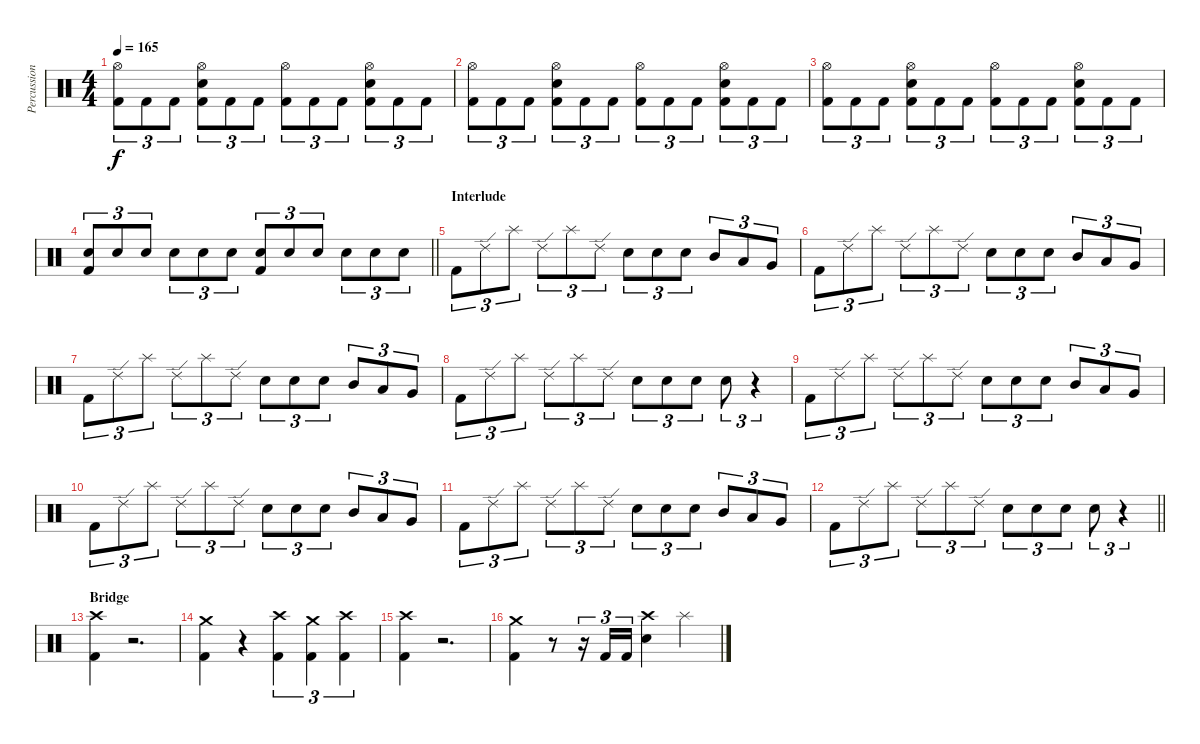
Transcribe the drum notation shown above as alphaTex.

\track ("Percussion" "Percussion") {instrument percussion}
\staff {score}
\articulation defaults
\ts (4 4)
\tempo 165
\clef neutral
\ks c
("Hi-Hat (open)" "Kick (hit) 2").8{tu (3 2) dy f} "Kick (hit) 2".8{tu (3 2)} "Kick (hit) 2".8{tu (3 2)} ("Hi-Hat (open)" "Snare (hit) 2" "Kick (hit) 2").8{tu (3 2)} "Kick (hit) 2".8{tu (3 2)} "Kick (hit) 2".8{tu (3 2)} ("Hi-Hat (open)" "Kick (hit) 2").8{tu (3 2)} "Kick (hit) 2".8{tu (3 2)} "Kick (hit) 2".8{tu (3 2)} ("Hi-Hat (open)" "Snare (hit) 2" "Kick (hit) 2").8{tu (3 2)} "Kick (hit) 2".8{tu (3 2)} "Kick (hit) 2".8{tu (3 2)} |
("Hi-Hat (open)" "Kick (hit) 2").8{tu (3 2)} "Kick (hit) 2".8{tu (3 2)} "Kick (hit) 2".8{tu (3 2)} ("Hi-Hat (open)" "Snare (hit) 2" "Kick (hit) 2").8{tu (3 2)} "Kick (hit) 2".8{tu (3 2)} "Kick (hit) 2".8{tu (3 2)} ("Hi-Hat (open)" "Kick (hit) 2").8{tu (3 2)} "Kick (hit) 2".8{tu (3 2)} "Kick (hit) 2".8{tu (3 2)} ("Hi-Hat (open)" "Snare (hit) 2" "Kick (hit) 2").8{tu (3 2)} "Kick (hit) 2".8{tu (3 2)} "Kick (hit) 2".8{tu (3 2)} |
("Hi-Hat (open)" "Kick (hit) 2").8{tu (3 2)} "Kick (hit) 2".8{tu (3 2)} "Kick (hit) 2".8{tu (3 2)} ("Hi-Hat (open)" "Snare (hit) 2" "Kick (hit) 2").8{tu (3 2)} "Kick (hit) 2".8{tu (3 2)} "Kick (hit) 2".8{tu (3 2)} ("Hi-Hat (open)" "Kick (hit) 2").8{tu (3 2)} "Kick (hit) 2".8{tu (3 2)} "Kick (hit) 2".8{tu (3 2)} ("Hi-Hat (open)" "Snare (hit) 2" "Kick (hit) 2").8{tu (3 2)} "Kick (hit) 2".8{tu (3 2)} "Kick (hit) 2".8{tu (3 2)} |
\barLineRight lightlight
("Snare (hit) 2" "Kick (hit) 2").8{tu (3 2)} "Snare (hit) 2".8{tu (3 2)} "Snare (hit) 2".8{tu (3 2)} "Snare (hit) 2".8{tu (3 2)} "Snare (hit) 2".8{tu (3 2)} "Snare (hit) 2".8{tu (3 2)} ("Snare (hit) 2" "Kick (hit) 2").8{tu (3 2)} "Snare (hit) 2".8{tu (3 2)} "Snare (hit) 2".8{tu (3 2)} "Snare (hit) 2".8{tu (3 2)} "Snare (hit) 2".8{tu (3 2)} "Snare (hit) 2".8{tu (3 2)} |
\section ("" "Interlude")
"Kick (hit) 2".8{tu (3 2)} "Ride (edge) 2".8{tu (3 2)} "Splash (hit)".8{tu (3 2)} "Ride (edge) 2".8{tu (3 2)} "Splash (hit)".8{tu (3 2)} "Ride (edge) 2".8{tu (3 2)} "Snare (hit) 2".8{tu (3 2)} "Snare (hit) 2".8{tu (3 2)} "Snare (hit) 2".8{tu (3 2)} "Mid Tom (hit)".8{tu (3 2)} "Low Tom (hit)".8{tu (3 2)} "Very Low Tom (hit)".8{tu (3 2)} |
"Kick (hit) 2".8{tu (3 2)} "Ride (edge) 2".8{tu (3 2)} "Splash (hit)".8{tu (3 2)} "Ride (edge) 2".8{tu (3 2)} "Splash (hit)".8{tu (3 2)} "Ride (edge) 2".8{tu (3 2)} "Snare (hit) 2".8{tu (3 2)} "Snare (hit) 2".8{tu (3 2)} "Snare (hit) 2".8{tu (3 2)} "Mid Tom (hit)".8{tu (3 2)} "Low Tom (hit)".8{tu (3 2)} "Very Low Tom (hit)".8{tu (3 2)} |
"Kick (hit) 2".8{tu (3 2)} "Ride (edge) 2".8{tu (3 2)} "Splash (hit)".8{tu (3 2)} "Ride (edge) 2".8{tu (3 2)} "Splash (hit)".8{tu (3 2)} "Ride (edge) 2".8{tu (3 2)} "Snare (hit) 2".8{tu (3 2)} "Snare (hit) 2".8{tu (3 2)} "Snare (hit) 2".8{tu (3 2)} "Mid Tom (hit)".8{tu (3 2)} "Low Tom (hit)".8{tu (3 2)} "Very Low Tom (hit)".8{tu (3 2)} |
"Kick (hit) 2".8{tu (3 2)} "Ride (edge) 2".8{tu (3 2)} "Splash (hit)".8{tu (3 2)} "Ride (edge) 2".8{tu (3 2)} "Splash (hit)".8{tu (3 2)} "Ride (edge) 2".8{tu (3 2)} "Snare (hit) 2".8{tu (3 2)} "Snare (hit) 2".8{tu (3 2)} "Snare (hit) 2".8{tu (3 2)} "Snare (hit) 2".8{tu (3 2)} r.4{tu (3 2)} |
"Kick (hit) 2".8{tu (3 2)} "Ride (edge) 2".8{tu (3 2)} "Splash (hit)".8{tu (3 2)} "Ride (edge) 2".8{tu (3 2)} "Splash (hit)".8{tu (3 2)} "Ride (edge) 2".8{tu (3 2)} "Snare (hit) 2".8{tu (3 2)} "Snare (hit) 2".8{tu (3 2)} "Snare (hit) 2".8{tu (3 2)} "Mid Tom (hit)".8{tu (3 2)} "Low Tom (hit)".8{tu (3 2)} "Very Low Tom (hit)".8{tu (3 2)} |
"Kick (hit) 2".8{tu (3 2)} "Ride (edge) 2".8{tu (3 2)} "Splash (hit)".8{tu (3 2)} "Ride (edge) 2".8{tu (3 2)} "Splash (hit)".8{tu (3 2)} "Ride (edge) 2".8{tu (3 2)} "Snare (hit) 2".8{tu (3 2)} "Snare (hit) 2".8{tu (3 2)} "Snare (hit) 2".8{tu (3 2)} "Mid Tom (hit)".8{tu (3 2)} "Low Tom (hit)".8{tu (3 2)} "Very Low Tom (hit)".8{tu (3 2)} |
"Kick (hit) 2".8{tu (3 2)} "Ride (edge) 2".8{tu (3 2)} "Splash (hit)".8{tu (3 2)} "Ride (edge) 2".8{tu (3 2)} "Splash (hit)".8{tu (3 2)} "Ride (edge) 2".8{tu (3 2)} "Snare (hit) 2".8{tu (3 2)} "Snare (hit) 2".8{tu (3 2)} "Snare (hit) 2".8{tu (3 2)} "Mid Tom (hit)".8{tu (3 2)} "Low Tom (hit)".8{tu (3 2)} "Very Low Tom (hit)".8{tu (3 2)} |
\barLineRight lightlight "Kick (hit) 2".8{tu (3 2)} "Ride (edge) 2".8{tu (3 2)} "Splash (hit)".8{tu (3 2)} "Ride (edge) 2".8{tu (3 2)} "Splash (hit)".8{tu (3 2)} "Ride (edge) 2".8{tu (3 2)} "Snare (hit) 2".8{tu (3 2)} "Snare (hit) 2".8{tu (3 2)} "Snare (hit) 2".8{tu (3 2)} "Snare (hit) 2".8{tu (3 2)}
r.4{tu (3 2)} |
\section ("" "Bridge")
("Crash high (hit)" "Kick (hit) 2").4 r.2{d} |
("Crash medium (hit)" "Kick (hit) 2").4 r.4 ("Crash high (hit)" "Kick (hit) 2").4{tu (3 2)} ("Crash medium (hit)" "Kick (hit) 2").4{tu (3 2)} ("Crash high (hit)" "Kick (hit) 2").4{tu (3 2)} |
("Crash high (hit)" "Kick (hit) 2").4 r.2{d} |
("Crash medium (hit)" "Kick (hit) 2").4 r.8 r.16{tu (3 2)} "Kick (hit) 2".16{tu (3 2)} "Kick (hit) 2".16{tu (3 2)} ("Crash high (hit)" "Snare (hit) 2").4 "Splash (hit)".4
